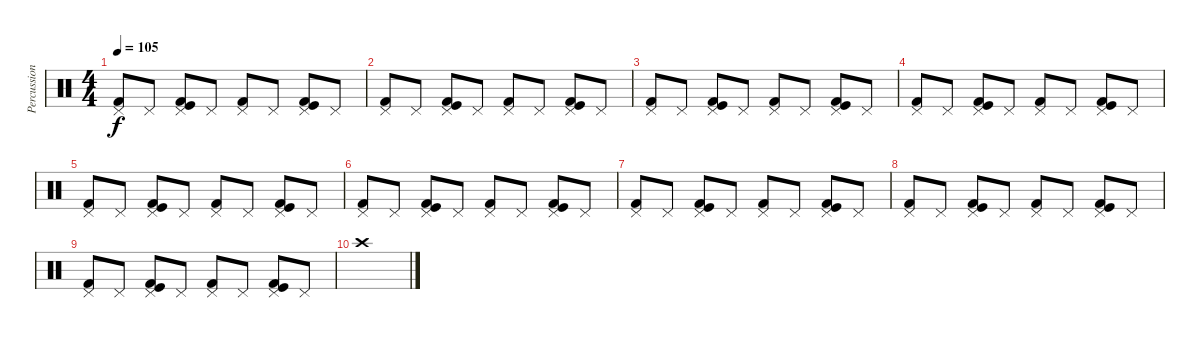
\track ("Percussion" "Percussion") {instrument percussion}
\staff {score}
\articulation defaults
\ts (4 4)
\tempo 105
\clef neutral
\ks aminor
("Kick (hit) 2" "Pedal Hi-Hat (hit)").8{dy f} "Pedal Hi-Hat (hit)".8 ("Kick (hit)" "Pedal Hi-Hat (hit)" "Kick (hit) 2").8 "Pedal Hi-Hat (hit)".8 ("Kick (hit) 2" "Pedal Hi-Hat (hit)").8 "Pedal Hi-Hat (hit)".8 ("Kick (hit)" "Pedal Hi-Hat (hit)" "Kick (hit) 2").8 "Pedal Hi-Hat (hit)".8 |
("Kick (hit) 2" "Pedal Hi-Hat (hit)").8 "Pedal Hi-Hat (hit)".8 ("Kick (hit)" "Pedal Hi-Hat (hit)" "Kick (hit) 2").8 "Pedal Hi-Hat (hit)".8 ("Kick (hit) 2" "Pedal Hi-Hat (hit)").8 "Pedal Hi-Hat (hit)".8 ("Kick (hit)" "Pedal Hi-Hat (hit)" "Kick (hit) 2").8 "Pedal Hi-Hat (hit)".8 |
("Kick (hit) 2" "Pedal Hi-Hat (hit)").8 "Pedal Hi-Hat (hit)".8 ("Kick (hit)" "Pedal Hi-Hat (hit)" "Kick (hit) 2").8 "Pedal Hi-Hat (hit)".8 ("Kick (hit) 2" "Pedal Hi-Hat (hit)").8 "Pedal Hi-Hat (hit)".8 ("Kick (hit)" "Pedal Hi-Hat (hit)" "Kick (hit) 2").8 "Pedal Hi-Hat (hit)".8 |
("Kick (hit) 2" "Pedal Hi-Hat (hit)").8 "Pedal Hi-Hat (hit)".8 ("Kick (hit)" "Pedal Hi-Hat (hit)" "Kick (hit) 2").8 "Pedal Hi-Hat (hit)".8 ("Kick (hit) 2" "Pedal Hi-Hat (hit)").8 "Pedal Hi-Hat (hit)".8 ("Kick (hit)" "Pedal Hi-Hat (hit)" "Kick (hit) 2").8 "Pedal Hi-Hat (hit)".8 |
("Kick (hit) 2" "Pedal Hi-Hat (hit)").8 "Pedal Hi-Hat (hit)".8 ("Kick (hit)" "Pedal Hi-Hat (hit)" "Kick (hit) 2").8 "Pedal Hi-Hat (hit)".8 ("Kick (hit) 2" "Pedal Hi-Hat (hit)").8 "Pedal Hi-Hat (hit)".8 ("Kick (hit)" "Pedal Hi-Hat (hit)" "Kick (hit) 2").8 "Pedal Hi-Hat (hit)".8 |
("Kick (hit) 2" "Pedal Hi-Hat (hit)").8 "Pedal Hi-Hat (hit)".8 ("Kick (hit)" "Pedal Hi-Hat (hit)" "Kick (hit) 2").8 "Pedal Hi-Hat (hit)".8 ("Kick (hit) 2" "Pedal Hi-Hat (hit)").8 "Pedal Hi-Hat (hit)".8 ("Kick (hit)" "Pedal Hi-Hat (hit)" "Kick (hit) 2").8 "Pedal Hi-Hat (hit)".8 |
("Kick (hit) 2" "Pedal Hi-Hat (hit)").8 "Pedal Hi-Hat (hit)".8 ("Kick (hit)" "Pedal Hi-Hat (hit)" "Kick (hit) 2").8 "Pedal Hi-Hat (hit)".8 ("Kick (hit) 2" "Pedal Hi-Hat (hit)").8 "Pedal Hi-Hat (hit)".8 ("Kick (hit)" "Pedal Hi-Hat (hit)" "Kick (hit) 2").8 "Pedal Hi-Hat (hit)".8 |
("Kick (hit) 2" "Pedal Hi-Hat (hit)").8 "Pedal Hi-Hat (hit)".8 ("Kick (hit)" "Pedal Hi-Hat (hit)" "Kick (hit) 2").8 "Pedal Hi-Hat (hit)".8 ("Kick (hit) 2" "Pedal Hi-Hat (hit)").8 "Pedal Hi-Hat (hit)".8 ("Kick (hit)" "Pedal Hi-Hat (hit)" "Kick (hit) 2").8 "Pedal Hi-Hat (hit)".8 |
("Kick (hit) 2" "Pedal Hi-Hat (hit)").8 "Pedal Hi-Hat (hit)".8 ("Kick (hit)" "Pedal Hi-Hat (hit)" "Kick (hit) 2").8 "Pedal Hi-Hat (hit)".8 ("Kick (hit) 2" "Pedal Hi-Hat (hit)").8 "Pedal Hi-Hat (hit)".8 ("Kick (hit)" "Pedal Hi-Hat (hit)" "Kick (hit) 2").8 "Pedal Hi-Hat (hit)".8 |
"Crash high (hit)".1
